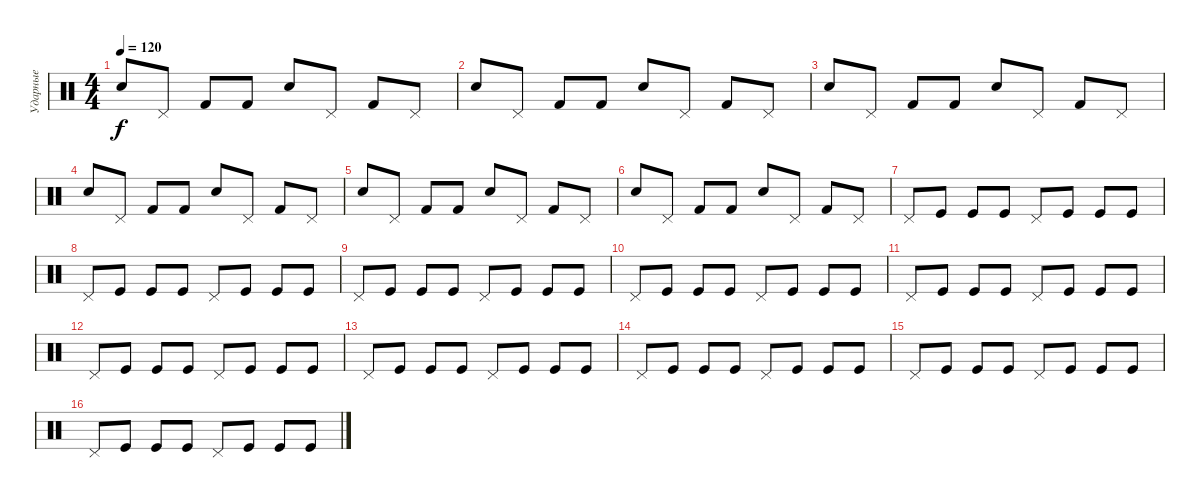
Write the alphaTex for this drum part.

\track ("Ударные" "Ударные") {instrument percussion}
\staff {score}
\articulation defaults
\ts (4 4)
\tempo 120
\clef neutral
\ks c "Electric Snare (hit)".8{dy f} "Pedal Hi-Hat (hit)".8 "Kick (hit) 2".8 "Kick (hit) 2".8 "Electric Snare (hit)".8 "Pedal Hi-Hat (hit)".8 "Kick (hit) 2".8 "Pedal Hi-Hat (hit)".8
|
"Electric Snare (hit)".8 "Pedal Hi-Hat (hit)".8 "Kick (hit) 2".8 "Kick (hit) 2".8 "Electric Snare (hit)".8 "Pedal Hi-Hat (hit)".8 "Kick (hit) 2".8 "Pedal Hi-Hat (hit)".8 |
"Electric Snare (hit)".8 "Pedal Hi-Hat (hit)".8 "Kick (hit) 2".8 "Kick (hit) 2".8 "Electric Snare (hit)".8 "Pedal Hi-Hat (hit)".8 "Kick (hit) 2".8 "Pedal Hi-Hat (hit)".8 |
"Electric Snare (hit)".8 "Pedal Hi-Hat (hit)".8 "Kick (hit) 2".8 "Kick (hit) 2".8 "Electric Snare (hit)".8 "Pedal Hi-Hat (hit)".8 "Kick (hit) 2".8 "Pedal Hi-Hat (hit)".8 |
"Electric Snare (hit)".8 "Pedal Hi-Hat (hit)".8 "Kick (hit) 2".8 "Kick (hit) 2".8 "Electric Snare (hit)".8 "Pedal Hi-Hat (hit)".8 "Kick (hit) 2".8 "Pedal Hi-Hat (hit)".8 |
"Electric Snare (hit)".8 "Pedal Hi-Hat (hit)".8 "Kick (hit) 2".8 "Kick (hit) 2".8 "Electric Snare (hit)".8 "Pedal Hi-Hat (hit)".8 "Kick (hit) 2".8 "Pedal Hi-Hat (hit)".8 |
"Pedal Hi-Hat (hit)".8 "Kick (hit)".8 "Kick (hit)".8 "Kick (hit)".8 "Pedal Hi-Hat (hit)".8 "Kick (hit)".8 "Kick (hit)".8 "Kick (hit)".8 |
"Pedal Hi-Hat (hit)".8 "Kick (hit)".8 "Kick (hit)".8 "Kick (hit)".8 "Pedal Hi-Hat (hit)".8 "Kick (hit)".8 "Kick (hit)".8 "Kick (hit)".8 |
"Pedal Hi-Hat (hit)".8 "Kick (hit)".8 "Kick (hit)".8 "Kick (hit)".8 "Pedal Hi-Hat (hit)".8 "Kick (hit)".8 "Kick (hit)".8 "Kick (hit)".8 |
"Pedal Hi-Hat (hit)".8 "Kick (hit)".8 "Kick (hit)".8 "Kick (hit)".8 "Pedal Hi-Hat (hit)".8 "Kick (hit)".8 "Kick (hit)".8 "Kick (hit)".8 |
"Pedal Hi-Hat (hit)".8 "Kick (hit)".8 "Kick (hit)".8 "Kick (hit)".8 "Pedal Hi-Hat (hit)".8 "Kick (hit)".8 "Kick (hit)".8 "Kick (hit)".8 |
"Pedal Hi-Hat (hit)".8 "Kick (hit)".8 "Kick (hit)".8 "Kick (hit)".8 "Pedal Hi-Hat (hit)".8 "Kick (hit)".8 "Kick (hit)".8 "Kick (hit)".8 |
"Pedal Hi-Hat (hit)".8 "Kick (hit)".8 "Kick (hit)".8 "Kick (hit)".8 "Pedal Hi-Hat (hit)".8 "Kick (hit)".8 "Kick (hit)".8 "Kick (hit)".8 |
"Pedal Hi-Hat (hit)".8 "Kick (hit)".8 "Kick (hit)".8 "Kick (hit)".8 "Pedal Hi-Hat (hit)".8 "Kick (hit)".8 "Kick (hit)".8 "Kick (hit)".8 |
"Pedal Hi-Hat (hit)".8 "Kick (hit)".8 "Kick (hit)".8 "Kick (hit)".8 "Pedal Hi-Hat (hit)".8 "Kick (hit)".8 "Kick (hit)".8 "Kick (hit)".8 |
"Pedal Hi-Hat (hit)".8 "Kick (hit)".8 "Kick (hit)".8 "Kick (hit)".8 "Pedal Hi-Hat (hit)".8 "Kick (hit)".8 "Kick (hit)".8 "Kick (hit)".8
